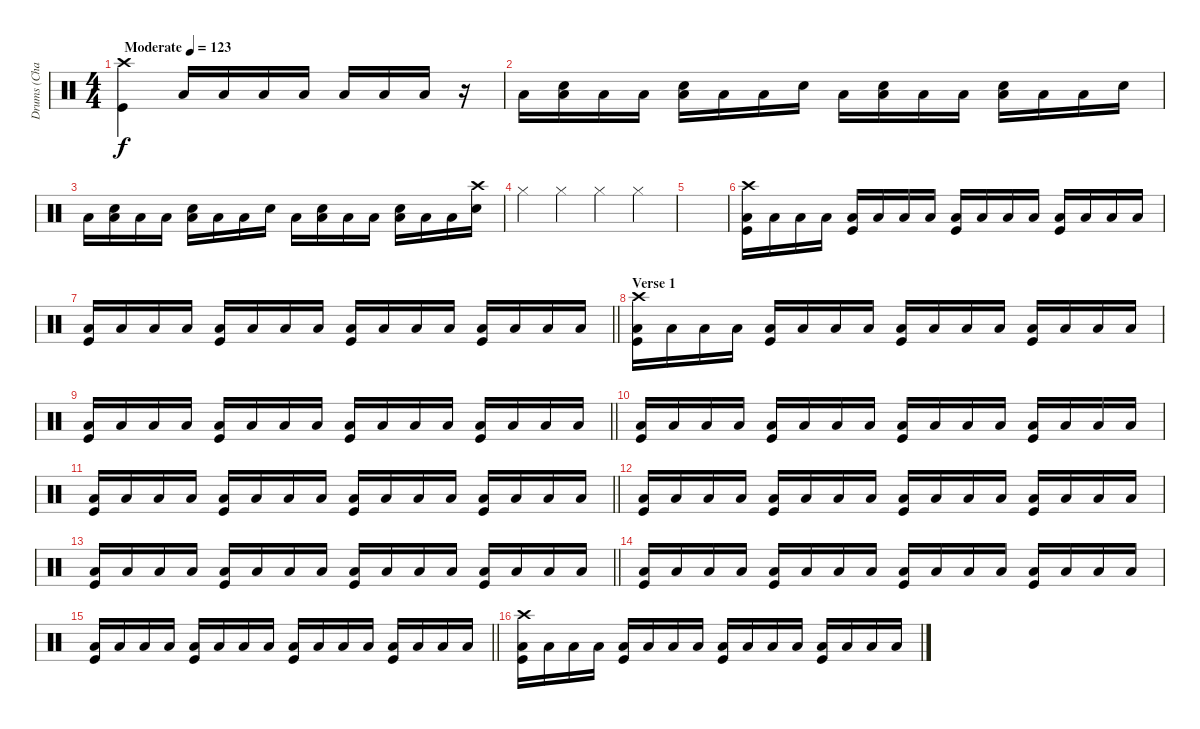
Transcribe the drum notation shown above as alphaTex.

\track ("Drums (Chad Smith)" "Drums (Cha") {instrument percussion}
\staff {score}
\articulation defaults
\ts (4 4)
\tempo (123 "Moderate")
\clef neutral
\ks c
("Crash high (hit)" "Kick (hit)").4{dy f} "Low Floor Tom (hit)".16 "Low Floor Tom (hit)".16 "Low Floor Tom (hit)".16 "Low Floor Tom (hit)".16 "Low Floor Tom (hit)".16 "Low Floor Tom (hit)".16 "Low Floor Tom (hit)".16 r.16 |
"Low Floor Tom (hit)".16 ("Low Floor Tom (hit)" "Snare (hit) 2").16 "Low Floor Tom (hit)".16 "Low Floor Tom (hit)".16 ("Low Floor Tom (hit)" "Snare (hit) 2").16 "Low Floor Tom (hit)".16 "Low Floor Tom (hit)".16 "Snare (hit) 2".16 "Low Floor Tom (hit)".16 ("Low Floor Tom (hit)" "Snare (hit) 2").16 "Low Floor Tom (hit)".16 "Low Floor Tom (hit)".16 ("Low Floor Tom (hit)" "Snare (hit) 2").16 "Low Floor Tom (hit)".16 "Low Floor Tom (hit)".16 "Snare (hit) 2".16 |
"Low Floor Tom (hit)".16 ("Low Floor Tom (hit)" "Snare (hit) 2").16 "Low Floor Tom (hit)".16 "Low Floor Tom (hit)".16 ("Low Floor Tom (hit)" "Snare (hit) 2").16 "Low Floor Tom (hit)".16 "Low Floor Tom (hit)".16 "Snare (hit) 2".16 "Low Floor Tom (hit)".16 ("Low Floor Tom (hit)" "Snare (hit) 2").16 "Low Floor Tom (hit)".16 "Low Floor Tom (hit)".16 ("Low Floor Tom (hit)" "Snare (hit) 2").16 "Low Floor Tom (hit)".16 "Low Floor Tom (hit)".16 ("Crash high (hit)" "Snare (hit) 2").16 |
"Hi-Hat (closed)".4 "Hi-Hat (closed)".4 "Hi-Hat (closed)".4 "Hi-Hat (closed)".4 |
|
("Crash high (hit)" "Kick (hit)" "Low Floor Tom (hit)").16 "Low Floor Tom (hit)".16 "Low Floor Tom (hit)".16 "Low Floor Tom (hit)".16 ("Kick (hit)" "Low Floor Tom (hit)").16 "Low Floor Tom (hit)".16 "Low Floor Tom (hit)".16 "Low Floor Tom (hit)".16 ("Kick (hit)" "Low Floor Tom (hit)").16 "Low Floor Tom (hit)".16 "Low Floor Tom (hit)".16 "Low Floor Tom (hit)".16 ("Kick (hit)" "Low Floor Tom (hit)").16 "Low Floor Tom (hit)".16 "Low Floor Tom (hit)".16 "Low Floor Tom (hit)".16 |
\barLineRight lightlight
("Kick (hit)" "Low Floor Tom (hit)").16 "Low Floor Tom (hit)".16 "Low Floor Tom (hit)".16 "Low Floor Tom (hit)".16 ("Kick (hit)" "Low Floor Tom (hit)").16 "Low Floor Tom (hit)".16 "Low Floor Tom (hit)".16 "Low Floor Tom (hit)".16 ("Kick (hit)" "Low Floor Tom (hit)").16 "Low Floor Tom (hit)".16 "Low Floor Tom (hit)".16 "Low Floor Tom (hit)".16 ("Kick (hit)" "Low Floor Tom (hit)").16 "Low Floor Tom (hit)".16 "Low Floor Tom (hit)".16 "Low Floor Tom (hit)".16 |
\section ("" "Verse 1")
("Crash high (hit)" "Kick (hit)" "Low Floor Tom (hit)").16 "Low Floor Tom (hit)".16 "Low Floor Tom (hit)".16 "Low Floor Tom (hit)".16 ("Kick (hit)" "Low Floor Tom (hit)").16 "Low Floor Tom (hit)".16 "Low Floor Tom (hit)".16 "Low Floor Tom (hit)".16 ("Kick (hit)" "Low Floor Tom (hit)").16 "Low Floor Tom (hit)".16 "Low Floor Tom (hit)".16 "Low Floor Tom (hit)".16 ("Kick (hit)" "Low Floor Tom (hit)").16 "Low Floor Tom (hit)".16 "Low Floor Tom (hit)".16 "Low Floor Tom (hit)".16 |
\barLineRight lightlight
("Kick (hit)" "Low Floor Tom (hit)").16 "Low Floor Tom (hit)".16 "Low Floor Tom (hit)".16 "Low Floor Tom (hit)".16 ("Kick (hit)" "Low Floor Tom (hit)").16 "Low Floor Tom (hit)".16 "Low Floor Tom (hit)".16 "Low Floor Tom (hit)".16 ("Kick (hit)" "Low Floor Tom (hit)").16 "Low Floor Tom (hit)".16 "Low Floor Tom (hit)".16 "Low Floor Tom (hit)".16 ("Kick (hit)" "Low Floor Tom (hit)").16 "Low Floor Tom (hit)".16 "Low Floor Tom (hit)".16 "Low Floor Tom (hit)".16 |
("Kick (hit)" "Low Floor Tom (hit)").16 "Low Floor Tom (hit)".16 "Low Floor Tom (hit)".16 "Low Floor Tom (hit)".16 ("Kick (hit)" "Low Floor Tom (hit)").16 "Low Floor Tom (hit)".16 "Low Floor Tom (hit)".16 "Low Floor Tom (hit)".16 ("Kick (hit)" "Low Floor Tom (hit)").16 "Low Floor Tom (hit)".16 "Low Floor Tom (hit)".16 "Low Floor Tom (hit)".16 ("Kick (hit)" "Low Floor Tom (hit)").16 "Low Floor Tom (hit)".16 "Low Floor Tom (hit)".16 "Low Floor Tom (hit)".16 |
\barLineRight lightlight
("Kick (hit)" "Low Floor Tom (hit)").16 "Low Floor Tom (hit)".16 "Low Floor Tom (hit)".16 "Low Floor Tom (hit)".16 ("Kick (hit)" "Low Floor Tom (hit)").16 "Low Floor Tom (hit)".16 "Low Floor Tom (hit)".16 "Low Floor Tom (hit)".16 ("Kick (hit)" "Low Floor Tom (hit)").16 "Low Floor Tom (hit)".16 "Low Floor Tom (hit)".16 "Low Floor Tom (hit)".16 ("Kick (hit)" "Low Floor Tom (hit)").16 "Low Floor Tom (hit)".16 "Low Floor Tom (hit)".16 "Low Floor Tom (hit)".16 |
("Kick (hit)" "Low Floor Tom (hit)").16 "Low Floor Tom (hit)".16 "Low Floor Tom (hit)".16 "Low Floor Tom (hit)".16 ("Kick (hit)" "Low Floor Tom (hit)").16 "Low Floor Tom (hit)".16 "Low Floor Tom (hit)".16 "Low Floor Tom (hit)".16 ("Kick (hit)" "Low Floor Tom (hit)").16 "Low Floor Tom (hit)".16 "Low Floor Tom (hit)".16 "Low Floor Tom (hit)".16 ("Kick (hit)" "Low Floor Tom (hit)").16 "Low Floor Tom (hit)".16 "Low Floor Tom (hit)".16 "Low Floor Tom (hit)".16 |
\barLineRight lightlight
("Kick (hit)" "Low Floor Tom (hit)").16 "Low Floor Tom (hit)".16 "Low Floor Tom (hit)".16 "Low Floor Tom (hit)".16 ("Kick (hit)" "Low Floor Tom (hit)").16 "Low Floor Tom (hit)".16 "Low Floor Tom (hit)".16 "Low Floor Tom (hit)".16 ("Kick (hit)" "Low Floor Tom (hit)").16 "Low Floor Tom (hit)".16 "Low Floor Tom (hit)".16 "Low Floor Tom (hit)".16 ("Kick (hit)" "Low Floor Tom (hit)").16 "Low Floor Tom (hit)".16 "Low Floor Tom (hit)".16 "Low Floor Tom (hit)".16 |
("Kick (hit)" "Low Floor Tom (hit)").16 "Low Floor Tom (hit)".16 "Low Floor Tom (hit)".16 "Low Floor Tom (hit)".16 ("Kick (hit)" "Low Floor Tom (hit)").16 "Low Floor Tom (hit)".16 "Low Floor Tom (hit)".16 "Low Floor Tom (hit)".16 ("Kick (hit)" "Low Floor Tom (hit)").16 "Low Floor Tom (hit)".16 "Low Floor Tom (hit)".16 "Low Floor Tom (hit)".16 ("Kick (hit)" "Low Floor Tom (hit)").16 "Low Floor Tom (hit)".16 "Low Floor Tom (hit)".16 "Low Floor Tom (hit)".16 |
\barLineRight lightlight
("Kick (hit)" "Low Floor Tom (hit)").16 "Low Floor Tom (hit)".16 "Low Floor Tom (hit)".16 "Low Floor Tom (hit)".16 ("Kick (hit)" "Low Floor Tom (hit)").16 "Low Floor Tom (hit)".16 "Low Floor Tom (hit)".16 "Low Floor Tom (hit)".16 ("Kick (hit)" "Low Floor Tom (hit)").16 "Low Floor Tom (hit)".16 "Low Floor Tom (hit)".16 "Low Floor Tom (hit)".16 ("Kick (hit)" "Low Floor Tom (hit)").16 "Low Floor Tom (hit)".16 "Low Floor Tom (hit)".16 "Low Floor Tom (hit)".16 |
("Crash high (hit)" "Kick (hit)" "Low Floor Tom (hit)").16 "Low Floor Tom (hit)".16 "Low Floor Tom (hit)".16 "Low Floor Tom (hit)".16 ("Kick (hit)" "Low Floor Tom (hit)").16 "Low Floor Tom (hit)".16 "Low Floor Tom (hit)".16 "Low Floor Tom (hit)".16 ("Kick (hit)" "Low Floor Tom (hit)").16 "Low Floor Tom (hit)".16 "Low Floor Tom (hit)".16 "Low Floor Tom (hit)".16 ("Kick (hit)" "Low Floor Tom (hit)").16 "Low Floor Tom (hit)".16 "Low Floor Tom (hit)".16 "Low Floor Tom (hit)".16
